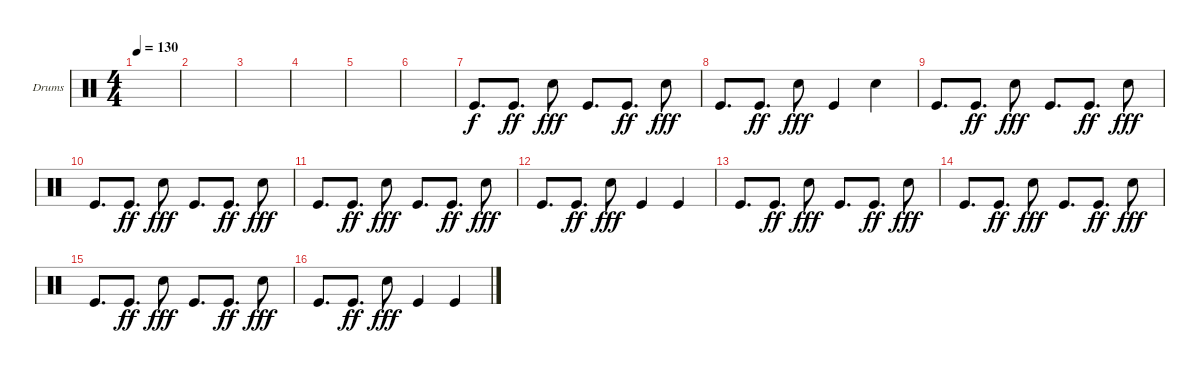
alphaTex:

\defaultSystemsLayout 4
\bracketExtendMode groupsimilarinstruments
\firstSystemTrackNameOrientation horizontal
\otherSystemsTrackNameOrientation horizontal
\track ("Helders" "Drums") {instrument percussion}
\staff {score}
\articulation defaults
\ts (4 4)
\tempo 130
\clef neutral
\ks c
|
|
|
|
|
|
"Kick (hit)".8{d} "Kick (hit)".8{d dy ff} "Snare (hit) 2".8{dy fff} "Kick (hit)".8{d} "Kick (hit)".8{d dy ff} "Snare (hit) 2".8{dy fff} |
"Kick (hit)".8{d} "Kick (hit)".8{d dy ff} "Snare (hit) 2".8{dy fff} "Kick (hit)".4 "Snare (hit) 2".4 |
"Kick (hit)".8{d} "Kick (hit)".8{d dy ff} "Snare (hit) 2".8{dy fff} "Kick (hit)".8{d} "Kick (hit)".8{d dy ff} "Snare (hit) 2".8{dy fff} |
"Kick (hit)".8{d} "Kick (hit)".8{d dy ff} "Snare (hit) 2".8{dy fff} "Kick (hit)".8{d} "Kick (hit)".8{d dy ff} "Snare (hit) 2".8{dy fff} |
"Kick (hit)".8{d} "Kick (hit)".8{d dy ff} "Snare (hit) 2".8{dy fff} "Kick (hit)".8{d} "Kick (hit)".8{d dy ff} "Snare (hit) 2".8{dy fff} |
"Kick (hit)".8{d} "Kick (hit)".8{d dy ff} "Snare (hit) 2".8{dy fff} "Kick (hit)".4 "Kick (hit)".4 |
"Kick (hit)".8{d} "Kick (hit)".8{d dy ff} "Snare (hit) 2".8{dy fff} "Kick (hit)".8{d} "Kick (hit)".8{d dy ff} "Snare (hit) 2".8{dy fff} |
"Kick (hit)".8{d} "Kick (hit)".8{d dy ff} "Snare (hit) 2".8{dy fff} "Kick (hit)".8{d} "Kick (hit)".8{d dy ff} "Snare (hit) 2".8{dy fff} |
"Kick (hit)".8{d} "Kick (hit)".8{d dy ff} "Snare (hit) 2".8{dy fff} "Kick (hit)".8{d} "Kick (hit)".8{d dy ff} "Snare (hit) 2".8{dy fff} |
"Kick (hit)".8{d} "Kick (hit)".8{d dy ff} "Snare (hit) 2".8{dy fff} "Kick (hit)".4 "Kick (hit)".4
